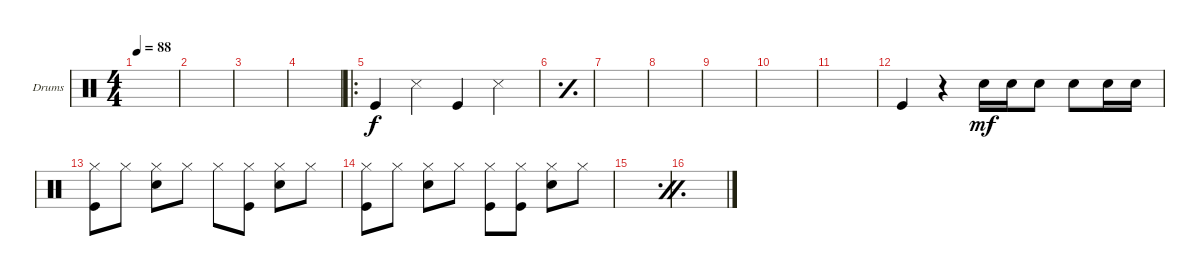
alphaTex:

\defaultSystemsLayout 4
\bracketExtendMode groupsimilarinstruments
\firstSystemTrackNameOrientation horizontal
\otherSystemsTrackNameOrientation horizontal
\track ("Алена" "Drums") {instrument percussion}
\staff {score}
\articulation defaults
\ts (4 4)
\tempo 88
\clef neutral
\scale
0.136808
\ks c
|
\scale 0
|
\scale 0
|
\scale 0
|
\ro
\scale
0.172638 "Kick (hit)".4 "Snare (side stick) 3".4 "Kick (hit)".4 "Snare (side stick) 3".4 |
\simile simple
\scale
0.0765472 |
\scale
0.0765472 |
\scale
0.0765472 |
\scale
0.0765472 |
\scale
0.0765472 |
|
\simile none "Kick (hit)".4
r.4 "Snare (hit) 2".16{dy mf} "Snare (hit) 2".16 "Snare (hit) 2".8 "Snare (hit) 2".8 "Snare (hit) 2".16 "Snare (hit) 2".16 |
("Kick (hit)" "Hi-Hat (closed)").8 "Hi-Hat (closed)".8 ("Snare (hit) 2" "Hi-Hat (closed)").8 "Hi-Hat (closed)".8 "Hi-Hat (closed)".8 ("Hi-Hat (closed)" "Kick (hit)").8 ("Hi-Hat (closed)" "Snare (hit) 2").8 "Hi-Hat (closed)".8 |
("Kick (hit)" "Hi-Hat (closed)").8 "Hi-Hat (closed)".8 ("Snare (hit) 2" "Hi-Hat (closed)").8 "Hi-Hat (closed)".8 ("Hi-Hat (closed)" "Kick (hit)").8 ("Hi-Hat (closed)" "Kick (hit)").8 ("Hi-Hat (closed)" "Snare (hit) 2").8 "Hi-Hat (closed)".8 |
\simile firstofdouble
|
\simile secondofdouble
